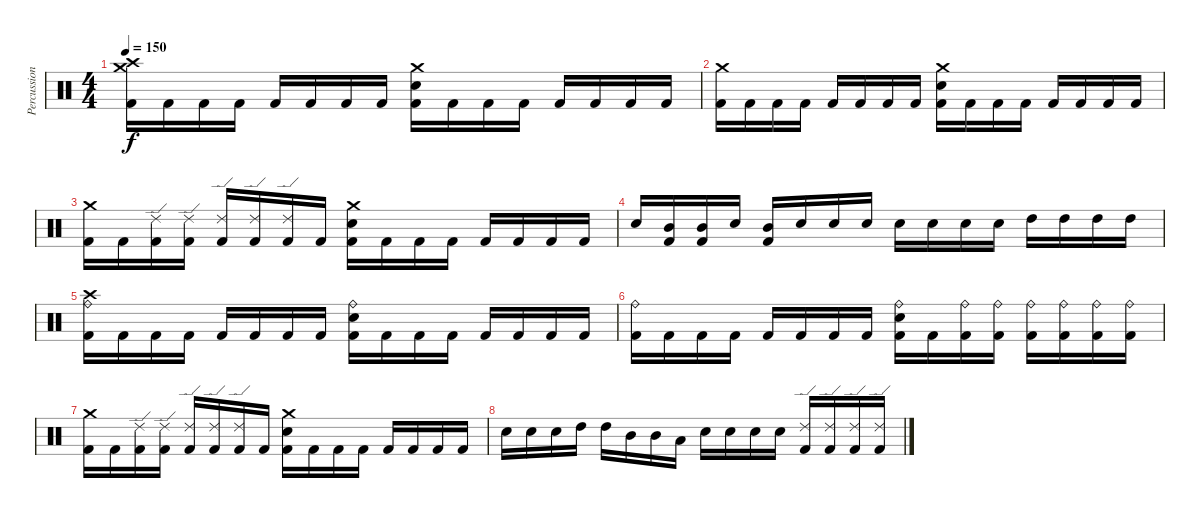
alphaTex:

\track ("Percussion" "Percussion") {instrument percussion}
\staff {score}
\articulation defaults
\ts (4 4)
\tempo 150
\clef neutral
\ks c
("Crash high (hit)" "Crash medium (hit)" "Kick (hit) 2").16{dy f} "Kick (hit) 2".16 "Kick (hit) 2".16 "Kick (hit) 2".16 "Kick (hit) 2".16 "Kick (hit) 2".16 "Kick (hit) 2".16 "Kick (hit) 2".16 ("Crash medium (hit)" "Electric Snare (hit)" "Kick (hit) 2").16 "Kick (hit) 2".16 "Kick (hit) 2".16 "Kick (hit) 2".16 "Kick (hit) 2".16 "Kick (hit) 2".16 "Kick (hit) 2".16 "Kick (hit) 2".16 |
("Crash medium (hit)" "Kick (hit) 2").16 "Kick (hit) 2".16 "Kick (hit) 2".16 "Kick (hit) 2".16 "Kick (hit) 2".16 "Kick (hit) 2".16 "Kick (hit) 2".16 "Kick (hit) 2".16 ("Crash medium (hit)" "Electric Snare (hit)" "Kick (hit) 2").16 "Kick (hit) 2".16 "Kick (hit) 2".16 "Kick (hit) 2".16 "Kick (hit) 2".16 "Kick (hit) 2".16 "Kick (hit) 2".16 "Kick (hit) 2".16 |
("Crash medium (hit)" "Kick (hit) 2").16 "Kick (hit) 2".16 ("Ride (edge) 2" "Kick (hit) 2").16 ("Ride (edge) 2" "Kick (hit) 2").16 ("Ride (edge) 2" "Kick (hit) 2").16 ("Ride (edge) 2" "Kick (hit) 2").16 ("Ride (edge) 2" "Kick (hit) 2").16 "Kick (hit) 2".16 ("Crash medium (hit)" "Electric Snare (hit)" "Kick (hit) 2").16 "Kick (hit) 2".16 "Kick (hit) 2".16 "Kick (hit) 2".16 "Kick (hit) 2".16 "Kick (hit) 2".16 "Kick (hit) 2".16 "Kick (hit) 2".16 |
"Electric Snare (hit)".16 ("Mid Tom (hit)" "Kick (hit) 2").16 ("Mid Tom (hit)" "Kick (hit) 2").16 "Electric Snare (hit)".16 ("Mid Tom (hit)" "Kick (hit) 2").16 "Electric Snare (hit)".16 "Electric Snare (hit)".16 "Electric Snare (hit)".16 "Electric Snare (hit)".16 "Electric Snare (hit)".16 "Electric Snare (hit)".16 "Electric Snare (hit)".16 "High Tom (hit)".16 "High Tom (hit)".16 "High Tom (hit)".16 "High Tom (hit)".16 |
("Crash high (hit)" "Ride (bell)" "Kick (hit) 2").16 "Kick (hit) 2".16 "Kick (hit) 2".16 "Kick (hit) 2".16 "Kick (hit) 2".16 "Kick (hit) 2".16 "Kick (hit) 2".16 "Kick (hit) 2".16 ("Ride (bell)" "Electric Snare (hit)" "Kick (hit) 2").16 "Kick (hit) 2".16 "Kick (hit) 2".16 "Kick (hit) 2".16 "Kick (hit) 2".16 "Kick (hit) 2".16 "Kick (hit) 2".16 "Kick (hit) 2".16 |
("Ride (bell)" "Kick (hit) 2").16 "Kick (hit) 2".16 "Kick (hit) 2".16 "Kick (hit) 2".16 "Kick (hit) 2".16 "Kick (hit) 2".16 "Kick (hit) 2".16 "Kick (hit) 2".16 ("Ride (bell)" "Electric Snare (hit)" "Kick (hit) 2").16 "Kick (hit) 2".16 ("Ride (bell)" "Kick (hit) 2").16 ("Ride (bell)" "Kick (hit) 2").16 ("Ride (bell)" "Kick (hit) 2").16 ("Ride (bell)" "Kick (hit) 2").16 ("Ride (bell)" "Kick (hit) 2").16 ("Ride (bell)" "Kick (hit) 2").16 |
("Crash medium (hit)" "Kick (hit) 2").16 "Kick (hit) 2".16 ("Ride (edge) 2" "Kick (hit) 2").16 ("Ride (edge) 2" "Kick (hit) 2").16 ("Ride (edge) 2" "Kick (hit) 2").16 ("Ride (edge) 2" "Kick (hit) 2").16 ("Ride (edge) 2" "Kick (hit) 2").16 "Kick (hit) 2".16 ("Crash medium (hit)" "Electric Snare (hit)" "Kick (hit) 2").16 "Kick (hit) 2".16 "Kick (hit) 2".16 "Kick (hit) 2".16 "Kick (hit) 2".16 "Kick (hit) 2".16 "Kick (hit) 2".16 "Kick (hit) 2".16 |
"Electric Snare (hit)".16 "Electric Snare (hit)".16 "Electric Snare (hit)".16 "High Tom (hit)".16 "High Tom (hit)".16 "Mid Tom (hit)".16 "Mid Tom (hit)".16 "Low Tom (hit)".16 "Electric Snare (hit)".16 "Electric Snare (hit)".16 "Electric Snare (hit)".16 "Electric Snare (hit)".16 ("Ride (edge) 2" "Kick (hit) 2").16 ("Ride (edge) 2" "Kick (hit) 2").16 ("Ride (edge) 2" "Kick (hit) 2").16 ("Ride (edge) 2" "Kick (hit) 2").16
